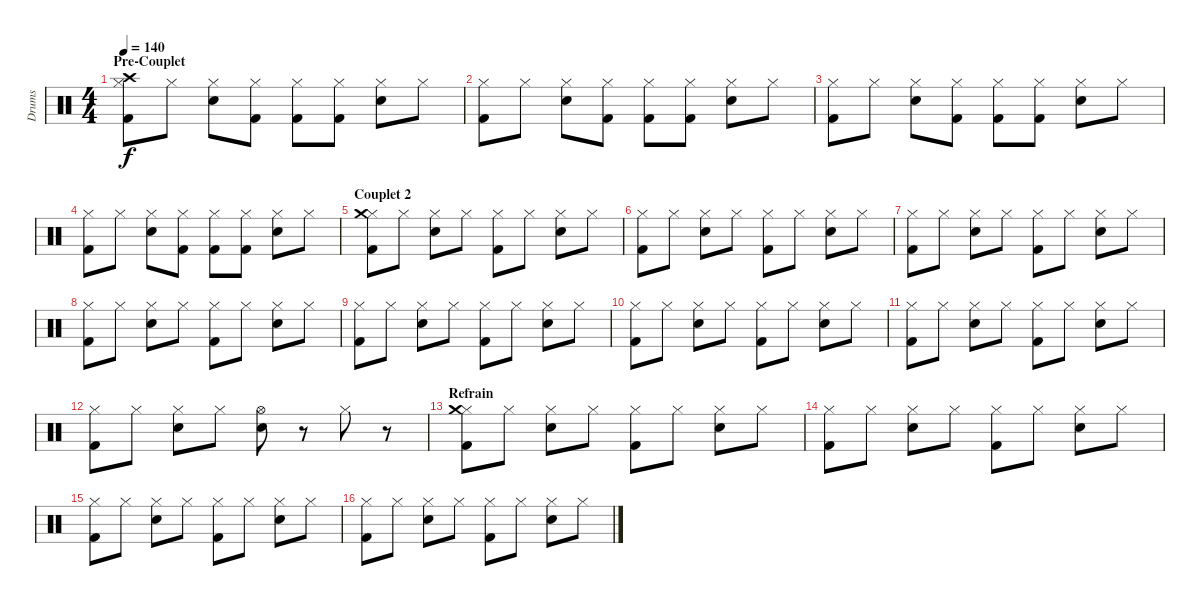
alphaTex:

\track ("Drums" "Drums") {instrument percussion}
\staff {score}
\articulation defaults
\ts (4 4)
\section ("" "Pre-Couplet")
\tempo 140
\clef neutral
\ks c
("Hi-Hat (closed)" "Crash high (hit)" "Kick (hit) 2").8{dy f} "Hi-Hat (closed)".8 ("Hi-Hat (closed)" "Electric Snare (hit)").8 ("Hi-Hat (closed)" "Kick (hit) 2").8 ("Hi-Hat (closed)" "Kick (hit) 2").8 ("Hi-Hat (closed)" "Kick (hit) 2").8 ("Hi-Hat (closed)" "Electric Snare (hit)").8 "Hi-Hat (closed)".8 |
("Hi-Hat (closed)" "Kick (hit) 2").8 "Hi-Hat (closed)".8 ("Hi-Hat (closed)" "Electric Snare (hit)").8 ("Hi-Hat (closed)" "Kick (hit) 2").8 ("Hi-Hat (closed)" "Kick (hit) 2").8 ("Hi-Hat (closed)" "Kick (hit) 2").8 ("Hi-Hat (closed)" "Electric Snare (hit)").8 "Hi-Hat (closed)".8 |
("Hi-Hat (closed)" "Kick (hit) 2").8 "Hi-Hat (closed)".8 ("Hi-Hat (closed)" "Electric Snare (hit)").8 ("Hi-Hat (closed)" "Kick (hit) 2").8 ("Hi-Hat (closed)" "Kick (hit) 2").8 ("Hi-Hat (closed)" "Kick (hit) 2").8 ("Hi-Hat (closed)" "Electric Snare (hit)").8 "Hi-Hat (closed)".8 |
("Hi-Hat (closed)" "Kick (hit) 2").8 "Hi-Hat (closed)".8 ("Hi-Hat (closed)" "Electric Snare (hit)").8 ("Hi-Hat (closed)" "Kick (hit) 2").8 ("Hi-Hat (closed)" "Kick (hit) 2").8 ("Hi-Hat (closed)" "Kick (hit) 2").8 ("Hi-Hat (closed)" "Electric Snare (hit)").8 "Hi-Hat (closed)".8 |
\section ("" "Couplet 2")
("Hi-Hat (closed)" "Crash medium (hit)" "Kick (hit) 2").8 "Hi-Hat (closed)".8 ("Hi-Hat (closed)" "Electric Snare (hit)").8 "Hi-Hat (closed)".8 ("Hi-Hat (closed)" "Kick (hit) 2").8 "Hi-Hat (closed)".8 ("Hi-Hat (closed)" "Electric Snare (hit)").8 "Hi-Hat (closed)".8 |
("Hi-Hat (closed)" "Kick (hit) 2").8 "Hi-Hat (closed)".8 ("Hi-Hat (closed)" "Electric Snare (hit)").8 "Hi-Hat (closed)".8 ("Hi-Hat (closed)" "Kick (hit) 2").8 "Hi-Hat (closed)".8 ("Hi-Hat (closed)" "Electric Snare (hit)").8 "Hi-Hat (closed)".8 |
("Hi-Hat (closed)" "Kick (hit) 2").8 "Hi-Hat (closed)".8 ("Hi-Hat (closed)" "Electric Snare (hit)").8 "Hi-Hat (closed)".8 ("Hi-Hat (closed)" "Kick (hit) 2").8 "Hi-Hat (closed)".8 ("Hi-Hat (closed)" "Electric Snare (hit)").8 "Hi-Hat (closed)".8 |
("Hi-Hat (closed)" "Kick (hit) 2").8 "Hi-Hat (closed)".8 ("Hi-Hat (closed)" "Electric Snare (hit)").8 "Hi-Hat (closed)".8 ("Hi-Hat (closed)" "Kick (hit) 2").8 "Hi-Hat (closed)".8 ("Hi-Hat (closed)" "Electric Snare (hit)").8 "Hi-Hat (closed)".8 |
("Hi-Hat (closed)" "Kick (hit) 2").8 "Hi-Hat (closed)".8 ("Hi-Hat (closed)" "Electric Snare (hit)").8 "Hi-Hat (closed)".8 ("Hi-Hat (closed)" "Kick (hit) 2").8 "Hi-Hat (closed)".8 ("Hi-Hat (closed)" "Electric Snare (hit)").8 "Hi-Hat (closed)".8 |
("Hi-Hat (closed)" "Kick (hit) 2").8 "Hi-Hat (closed)".8 ("Hi-Hat (closed)" "Electric Snare (hit)").8 "Hi-Hat (closed)".8 ("Hi-Hat (closed)" "Kick (hit) 2").8 "Hi-Hat (closed)".8 ("Hi-Hat (closed)" "Electric Snare (hit)").8 "Hi-Hat (closed)".8 |
("Hi-Hat (closed)" "Kick (hit) 2").8 "Hi-Hat (closed)".8 ("Hi-Hat (closed)" "Electric Snare (hit)").8 "Hi-Hat (closed)".8 ("Hi-Hat (closed)" "Kick (hit) 2").8 "Hi-Hat (closed)".8 ("Hi-Hat (closed)" "Electric Snare (hit)").8 "Hi-Hat (closed)".8 |
("Hi-Hat (closed)" "Kick (hit) 2").8 "Hi-Hat (closed)".8 ("Hi-Hat (closed)" "Electric Snare (hit)").8 "Hi-Hat (closed)".8 ("Hi-Hat (open)" "Electric Snare (hit)").8 r.8 "Hi-Hat (closed)".8 r.8 |
\section ("" "Refrain")
("Hi-Hat (closed)" "Crash medium (hit)" "Kick (hit) 2").8 "Hi-Hat (closed)".8 ("Hi-Hat (closed)" "Electric Snare (hit)").8 "Hi-Hat (closed)".8 ("Hi-Hat (closed)" "Kick (hit) 2").8 "Hi-Hat (closed)".8 ("Hi-Hat (closed)" "Electric Snare (hit)").8 "Hi-Hat (closed)".8 |
("Hi-Hat (closed)" "Kick (hit) 2").8 "Hi-Hat (closed)".8 ("Hi-Hat (closed)" "Electric Snare (hit)").8 "Hi-Hat (closed)".8 ("Hi-Hat (closed)" "Kick (hit) 2").8 "Hi-Hat (closed)".8 ("Hi-Hat (closed)" "Electric Snare (hit)").8 "Hi-Hat (closed)".8 |
("Hi-Hat (closed)" "Kick (hit) 2").8 "Hi-Hat (closed)".8 ("Hi-Hat (closed)" "Electric Snare (hit)").8 "Hi-Hat (closed)".8 ("Hi-Hat (closed)" "Kick (hit) 2").8 "Hi-Hat (closed)".8 ("Hi-Hat (closed)" "Electric Snare (hit)").8 "Hi-Hat (closed)".8 |
("Hi-Hat (closed)" "Kick (hit) 2").8 "Hi-Hat (closed)".8 ("Hi-Hat (closed)" "Electric Snare (hit)").8 "Hi-Hat (closed)".8 ("Hi-Hat (closed)" "Kick (hit) 2").8 "Hi-Hat (closed)".8 ("Hi-Hat (closed)" "Electric Snare (hit)").8 "Hi-Hat (closed)".8
